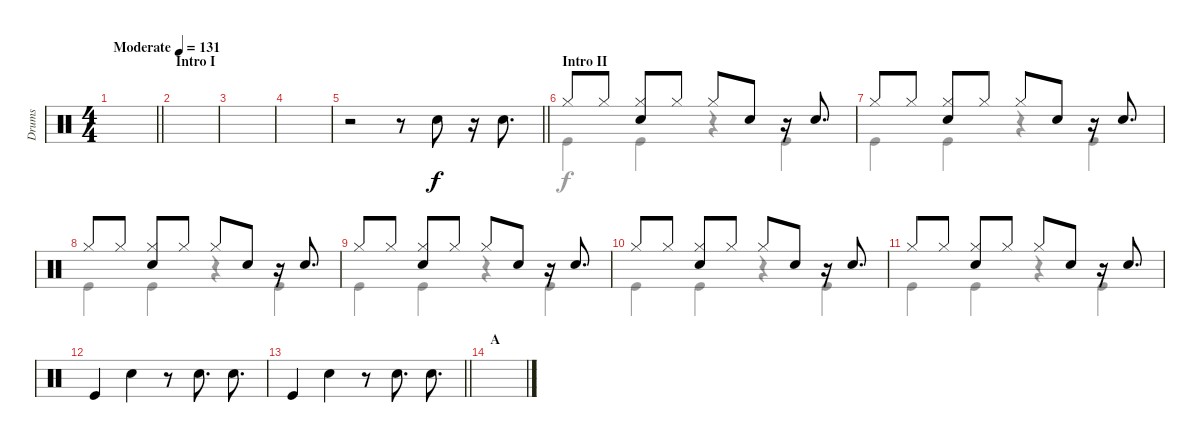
\track ("Drums" "Drums") {instrument percussion}
\staff {score}
\articulation defaults
\voice
\ts (4 4)
\tempo (131 "Moderate")
\clef neutral
\barLineRight lightlight
\ks c
|
\section ("" "Intro I")
|
|
|
\barLineRight lightlight
r.2 r.8 "Snare (hit) 2".8 r.16 "Snare (hit) 2".8{d} |
\section ("" "Intro II")
"Hi-Hat (closed)".8 "Hi-Hat (closed)".8 ("Hi-Hat (closed)" "Snare (hit) 2").8 "Hi-Hat (closed)".8 "Hi-Hat (closed)".8 "Snare (hit) 2".8 r.16 "Snare (hit) 2".8{d} |
"Hi-Hat (closed)".8 "Hi-Hat (closed)".8 ("Hi-Hat (closed)" "Snare (hit) 2").8 "Hi-Hat (closed)".8 "Hi-Hat (closed)".8 "Snare (hit) 2".8 r.16 "Snare (hit) 2".8{d} |
"Hi-Hat (closed)".8 "Hi-Hat (closed)".8 ("Hi-Hat (closed)" "Snare (hit) 2").8 "Hi-Hat (closed)".8 "Hi-Hat (closed)".8 "Snare (hit) 2".8 r.16 "Snare (hit) 2".8{d} |
"Hi-Hat (closed)".8 "Hi-Hat (closed)".8 ("Hi-Hat (closed)" "Snare (hit) 2").8 "Hi-Hat (closed)".8 "Hi-Hat (closed)".8 "Snare (hit) 2".8 r.16 "Snare (hit) 2".8{d} |
"Hi-Hat (closed)".8 "Hi-Hat (closed)".8 ("Hi-Hat (closed)" "Snare (hit) 2").8 "Hi-Hat (closed)".8 "Hi-Hat (closed)".8 "Snare (hit) 2".8 r.16 "Snare (hit) 2".8{d} |
"Hi-Hat (closed)".8 "Hi-Hat (closed)".8 ("Hi-Hat (closed)" "Snare (hit) 2").8 "Hi-Hat (closed)".8 "Hi-Hat (closed)".8 "Snare (hit) 2".8 r.16 "Snare (hit) 2".8{d} |
"Kick (hit)".4 "Snare (hit) 2".4 r.8 "Snare (hit) 2".8{d} "Snare (hit) 2".8{d} |
\barLineRight lightlight "Kick (hit)".4 "Snare (hit) 2".4
r.8 "Snare (hit) 2".8{d} "Snare (hit) 2".8{d} |
\section ("" "A")
|
|
\voice
\clef neutral
\ottava regular
\simile none
\barLineRight lightlight
\ks c
|
|
|
|
\barLineRight lightlight
|
"Kick (hit)".4 "Kick (hit)".4 r.4 "Kick (hit)".4 |
"Kick (hit)".4 "Kick (hit)".4 r.4 "Kick (hit)".4 |
"Kick (hit)".4 "Kick (hit)".4 r.4 "Kick (hit)".4 |
"Kick (hit)".4 "Kick (hit)".4 r.4 "Kick (hit)".4 |
"Kick (hit)".4 "Kick (hit)".4 r.4 "Kick (hit)".4 |
"Kick (hit)".4 "Kick (hit)".4 r.4 "Kick (hit)".4 |
|
\barLineRight lightlight
|
|
|
